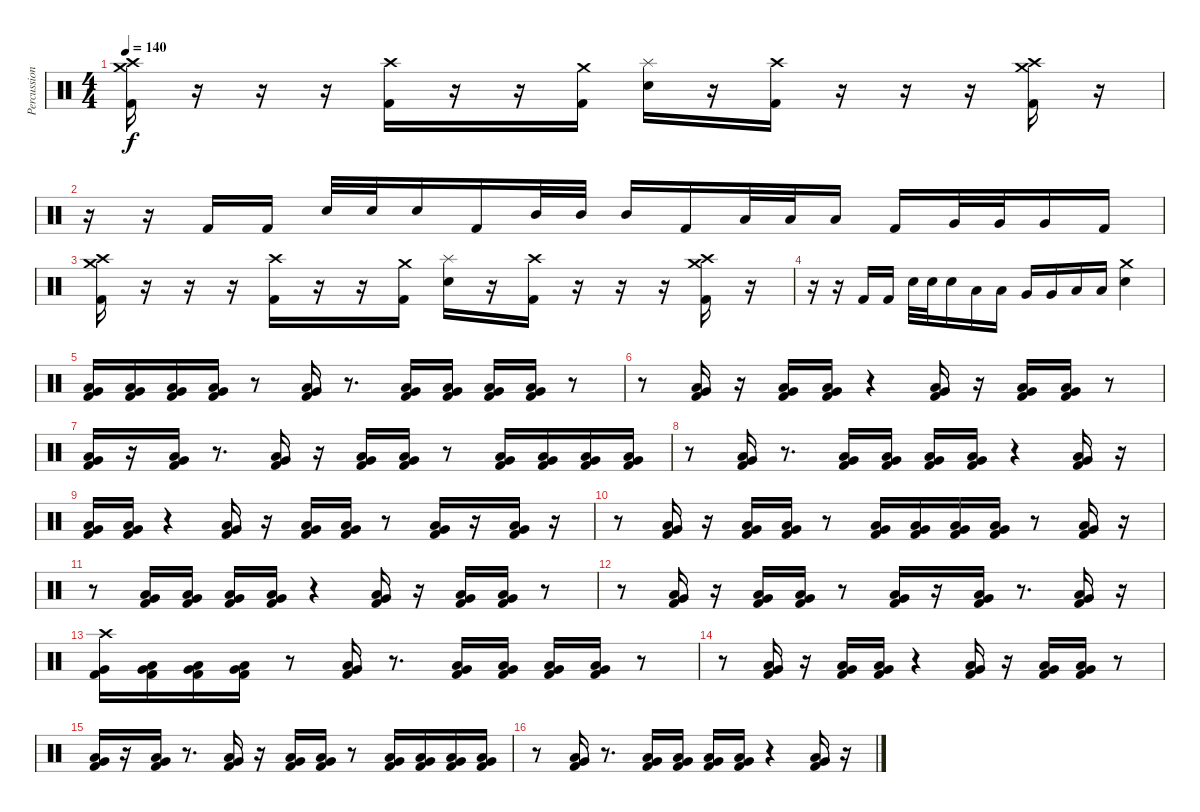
\track ("Percussion" "Percussion") {instrument percussion}
\staff {score}
\articulation defaults
\ts (4 4)
\tempo 140
\clef neutral
\ks c
("Crash high (hit)" "Crash medium (hit)" "Kick (hit) 2").16{dy f} r.16 r.16 r.16 ("Crash high (hit)" "Kick (hit) 2").16 r.16 r.16 ("Crash medium (hit)" "Kick (hit) 2").16 ("Splash (hit)" "Snare (hit) 2").16 r.16 ("Crash high (hit)" "Kick (hit) 2").16 r.16 r.16 r.16 ("Crash medium (hit)" "Crash high (hit)" "Kick (hit) 2").16 r.16 |
r.16 r.16 "Kick (hit) 2".16 "Kick (hit) 2".16 "Snare (hit) 2".32 "Snare (hit) 2".32 "Snare (hit) 2".16 "Kick (hit) 2".16 "Mid Tom (hit)".32 "Mid Tom (hit)".32 "Mid Tom (hit)".16 "Kick (hit) 2".16 "Low Tom (hit)".32 "Low Tom (hit)".32 "Low Tom (hit)".16 "Kick (hit) 2".16 "Very Low Tom (hit)".32 "Very Low Tom (hit)".32 "Very Low Tom (hit)".16 "Kick (hit) 2".16 |
("Crash high (hit)" "Crash medium (hit)" "Kick (hit) 2").16 r.16 r.16 r.16 ("Crash high (hit)" "Kick (hit) 2").16 r.16 r.16 ("Crash medium (hit)" "Kick (hit) 2").16 ("Splash (hit)" "Snare (hit) 2").16 r.16 ("Crash high (hit)" "Kick (hit) 2").16 r.16 r.16 r.16 ("Crash medium (hit)" "Crash high (hit)" "Kick (hit) 2").16 r.16 |
r.16 r.16 "Kick (hit) 2".16 "Kick (hit) 2".16 "Snare (hit) 2".32 "Snare (hit) 2".32 "Snare (hit) 2".16 "Low Tom (hit)".16 "Low Tom (hit)".16 "Very Low Tom (hit)".16 "Very Low Tom (hit)".16 "Low Floor Tom (hit)".16 "Low Floor Tom (hit)".16 ("Crash medium (hit)" "Snare (hit) 2").4 |
("Low Floor Tom (hit)" "Very Low Tom (hit)" "Kick (hit) 2").16 ("Low Floor Tom (hit)" "Very Low Tom (hit)" "Kick (hit) 2").16 ("Low Floor Tom (hit)" "Very Low Tom (hit)" "Kick (hit) 2").16 ("Low Floor Tom (hit)" "Very Low Tom (hit)" "Kick (hit) 2").16 r.8 ("Low Floor Tom (hit)" "Very Low Tom (hit)" "Kick (hit) 2").16 r.8{d} ("Low Floor Tom (hit)" "Very Low Tom (hit)" "Kick (hit) 2").16 ("Low Floor Tom (hit)" "Very Low Tom (hit)" "Kick (hit) 2").16 ("Low Floor Tom (hit)" "Very Low Tom (hit)" "Kick (hit) 2").16 ("Low Floor Tom (hit)" "Very Low Tom (hit)" "Kick (hit) 2").16 r.8 |
r.8 ("Low Floor Tom (hit)" "Very Low Tom (hit)" "Kick (hit) 2").16 r.16 ("Low Floor Tom (hit)" "Very Low Tom (hit)" "Kick (hit) 2").16 ("Low Floor Tom (hit)" "Very Low Tom (hit)" "Kick (hit) 2").16 r.4 ("Low Floor Tom (hit)" "Very Low Tom (hit)" "Kick (hit) 2").16 r.16 ("Low Floor Tom (hit)" "Very Low Tom (hit)" "Kick (hit) 2").16 ("Low Floor Tom (hit)" "Very Low Tom (hit)" "Kick (hit) 2").16 r.8 |
("Low Floor Tom (hit)" "Very Low Tom (hit)" "Kick (hit) 2").16 r.16 ("Low Floor Tom (hit)" "Very Low Tom (hit)" "Kick (hit) 2").16 r.8{d} ("Low Floor Tom (hit)" "Very Low Tom (hit)" "Kick (hit) 2").16 r.16 ("Low Floor Tom (hit)" "Very Low Tom (hit)" "Kick (hit) 2").16 ("Low Floor Tom (hit)" "Very Low Tom (hit)" "Kick (hit) 2").16 r.8 ("Low Floor Tom (hit)" "Very Low Tom (hit)" "Kick (hit) 2").16 ("Low Floor Tom (hit)" "Very Low Tom (hit)" "Kick (hit) 2").16 ("Low Floor Tom (hit)" "Very Low Tom (hit)" "Kick (hit) 2").16 ("Low Floor Tom (hit)" "Very Low Tom (hit)" "Kick (hit) 2").16 |
r.8 ("Low Floor Tom (hit)" "Very Low Tom (hit)" "Kick (hit) 2").16 r.8{d} ("Low Floor Tom (hit)" "Very Low Tom (hit)" "Kick (hit) 2").16 ("Low Floor Tom (hit)" "Very Low Tom (hit)" "Kick (hit) 2").16 ("Low Floor Tom (hit)" "Very Low Tom (hit)" "Kick (hit) 2").16 ("Low Floor Tom (hit)" "Very Low Tom (hit)" "Kick (hit) 2").16 r.4 ("Low Floor Tom (hit)" "Very Low Tom (hit)" "Kick (hit) 2").16 r.16 |
("Low Floor Tom (hit)" "Very Low Tom (hit)" "Kick (hit) 2").16 ("Low Floor Tom (hit)" "Very Low Tom (hit)" "Kick (hit) 2").16 r.4 ("Low Floor Tom (hit)" "Very Low Tom (hit)" "Kick (hit) 2").16 r.16 ("Low Floor Tom (hit)" "Very Low Tom (hit)" "Kick (hit) 2").16 ("Low Floor Tom (hit)" "Very Low Tom (hit)" "Kick (hit) 2").16 r.8 ("Low Floor Tom (hit)" "Very Low Tom (hit)" "Kick (hit) 2").16 r.16 ("Low Floor Tom (hit)" "Very Low Tom (hit)" "Kick (hit) 2").16 r.16 |
r.8 ("Low Floor Tom (hit)" "Very Low Tom (hit)" "Kick (hit) 2").16 r.16 ("Low Floor Tom (hit)" "Very Low Tom (hit)" "Kick (hit) 2").16 ("Low Floor Tom (hit)" "Very Low Tom (hit)" "Kick (hit) 2").16 r.8 ("Low Floor Tom (hit)" "Very Low Tom (hit)" "Kick (hit) 2").16 ("Low Floor Tom (hit)" "Very Low Tom (hit)" "Kick (hit) 2").16 ("Low Floor Tom (hit)" "Very Low Tom (hit)" "Kick (hit) 2").16 ("Low Floor Tom (hit)" "Very Low Tom (hit)" "Kick (hit) 2").16 r.8 ("Low Floor Tom (hit)" "Very Low Tom (hit)" "Kick (hit) 2").16 r.16 |
r.8 ("Low Floor Tom (hit)" "Very Low Tom (hit)" "Kick (hit) 2").16 ("Low Floor Tom (hit)" "Very Low Tom (hit)" "Kick (hit) 2").16 ("Low Floor Tom (hit)" "Very Low Tom (hit)" "Kick (hit) 2").16 ("Low Floor Tom (hit)" "Very Low Tom (hit)" "Kick (hit) 2").16 r.4 ("Low Floor Tom (hit)" "Very Low Tom (hit)" "Kick (hit) 2").16 r.16 ("Low Floor Tom (hit)" "Very Low Tom (hit)" "Kick (hit) 2").16 ("Low Floor Tom (hit)" "Very Low Tom (hit)" "Kick (hit) 2").16 r.8 |
r.8 ("Low Floor Tom (hit)" "Very Low Tom (hit)" "Kick (hit) 2").16 r.16 ("Low Floor Tom (hit)" "Very Low Tom (hit)" "Kick (hit) 2").16 ("Low Floor Tom (hit)" "Very Low Tom (hit)" "Kick (hit) 2").16 r.8 ("Low Floor Tom (hit)" "Very Low Tom (hit)" "Kick (hit) 2").16 r.16 ("Low Floor Tom (hit)" "Very Low Tom (hit)" "Kick (hit) 2").16 r.8{d} ("Low Floor Tom (hit)" "Very Low Tom (hit)" "Kick (hit) 2").16 r.16 |
("Crash high (hit)" "Very Low Tom (hit)" "Kick (hit) 2").16 ("Low Floor Tom (hit)" "Very Low Tom (hit)" "Kick (hit) 2").16 ("Low Floor Tom (hit)" "Very Low Tom (hit)" "Kick (hit) 2").16 ("Low Floor Tom (hit)" "Very Low Tom (hit)" "Kick (hit) 2").16 r.8 ("Low Floor Tom (hit)" "Very Low Tom (hit)" "Kick (hit) 2").16 r.8{d} ("Low Floor Tom (hit)" "Very Low Tom (hit)" "Kick (hit) 2").16 ("Low Floor Tom (hit)" "Very Low Tom (hit)" "Kick (hit) 2").16 ("Low Floor Tom (hit)" "Very Low Tom (hit)" "Kick (hit) 2").16 ("Low Floor Tom (hit)" "Very Low Tom (hit)" "Kick (hit) 2").16 r.8 |
r.8 ("Low Floor Tom (hit)" "Very Low Tom (hit)" "Kick (hit) 2").16 r.16 ("Low Floor Tom (hit)" "Very Low Tom (hit)" "Kick (hit) 2").16 ("Low Floor Tom (hit)" "Very Low Tom (hit)" "Kick (hit) 2").16 r.4 ("Low Floor Tom (hit)" "Very Low Tom (hit)" "Kick (hit) 2").16 r.16 ("Low Floor Tom (hit)" "Very Low Tom (hit)" "Kick (hit) 2").16 ("Low Floor Tom (hit)" "Very Low Tom (hit)" "Kick (hit) 2").16 r.8 |
("Low Floor Tom (hit)" "Very Low Tom (hit)" "Kick (hit) 2").16 r.16 ("Low Floor Tom (hit)" "Very Low Tom (hit)" "Kick (hit) 2").16 r.8{d} ("Low Floor Tom (hit)" "Very Low Tom (hit)" "Kick (hit) 2").16 r.16 ("Low Floor Tom (hit)" "Very Low Tom (hit)" "Kick (hit) 2").16 ("Low Floor Tom (hit)" "Very Low Tom (hit)" "Kick (hit) 2").16 r.8 ("Low Floor Tom (hit)" "Very Low Tom (hit)" "Kick (hit) 2").16 ("Low Floor Tom (hit)" "Very Low Tom (hit)" "Kick (hit) 2").16 ("Low Floor Tom (hit)" "Very Low Tom (hit)" "Kick (hit) 2").16 ("Low Floor Tom (hit)" "Very Low Tom (hit)" "Kick (hit) 2").16 |
r.8 ("Low Floor Tom (hit)" "Very Low Tom (hit)" "Kick (hit) 2").16 r.8{d} ("Low Floor Tom (hit)" "Very Low Tom (hit)" "Kick (hit) 2").16 ("Low Floor Tom (hit)" "Very Low Tom (hit)" "Kick (hit) 2").16 ("Low Floor Tom (hit)" "Very Low Tom (hit)" "Kick (hit) 2").16 ("Low Floor Tom (hit)" "Very Low Tom (hit)" "Kick (hit) 2").16 r.4 ("Low Floor Tom (hit)" "Very Low Tom (hit)" "Kick (hit) 2").16 r.16
